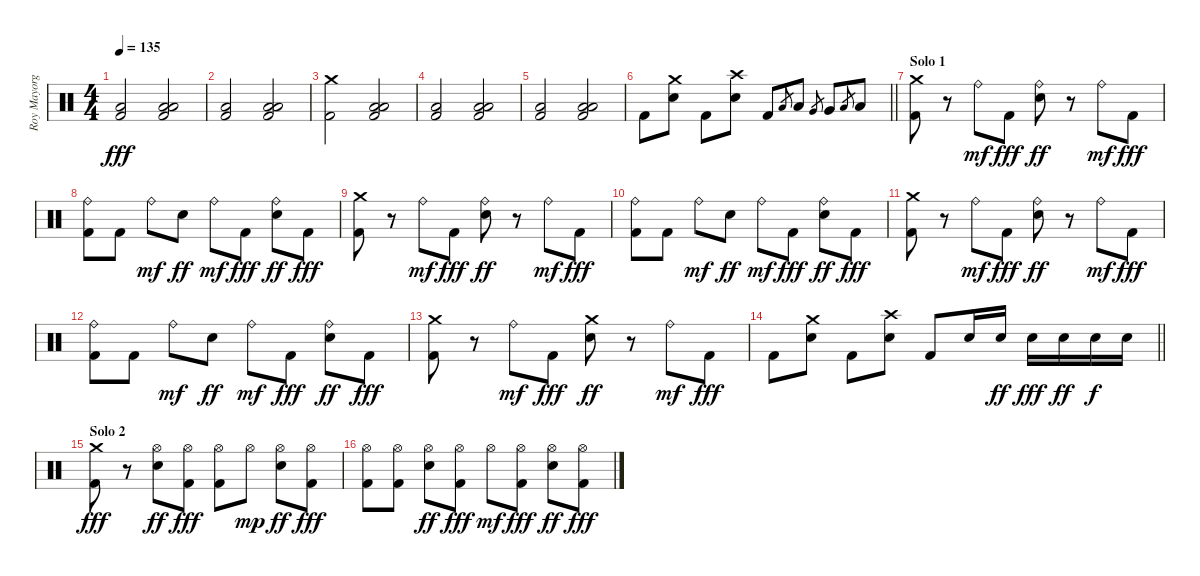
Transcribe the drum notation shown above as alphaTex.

\track ("Roy Mayorga" "Roy Mayorg") {instrument percussion}
\staff {score}
\articulation defaults
\ts (4 4)
\tempo 135
\clef neutral
\ks c
("Low Floor Tom (hit)" "Kick (hit) 2").2{dy fff} ("Low Tom (hit)" "Low Floor Tom (hit)" "Kick (hit) 2").2 |
("Low Floor Tom (hit)" "Kick (hit) 2").2 ("Low Tom (hit)" "Low Floor Tom (hit)" "Kick (hit) 2").2 |
("Crash medium (hit)" "Kick (hit) 2").2 ("Low Tom (hit)" "Low Floor Tom (hit)" "Kick (hit) 2").2 |
("Low Floor Tom (hit)" "Kick (hit) 2").2 ("Low Tom (hit)" "Low Floor Tom (hit)" "Kick (hit) 2").2 |
("Low Floor Tom (hit)" "Kick (hit) 2").2 ("Low Tom (hit)" "Low Floor Tom (hit)" "Kick (hit) 2").2 |
\barLineRight lightlight "Kick (hit) 2".8
("Crash medium (hit)" "Electric Snare (hit)").8 "Kick (hit) 2".8 ("Crash high (hit)" "Electric Snare (hit)").8 "Kick (hit) 2".8 "Low Tom (hit)".8{gr} "Low Tom (hit)".8 "Very Low Tom (hit)".8{gr} "Very Low Tom (hit)".8 "Low Floor Tom (hit)".8{gr} "Low Floor Tom (hit)".8 |
\section ("" "Solo 1")
("Crash medium (hit)" "Kick (hit) 2").8 r.8 "Ride (bell)".8{dy mf} "Kick (hit) 2".8{dy fff} ("Ride (bell)" "Electric Snare (hit)").8{dy ff} r.8 "Ride (bell)".8{dy mf} "Kick (hit) 2".8{dy fff} |
("Ride (bell)" "Kick (hit) 2").8 "Kick (hit) 2".8 "Ride (bell)".8{dy mf} "Electric Snare (hit)".8{dy ff} "Ride (bell)".8{dy mf} "Kick (hit) 2".8{dy fff} ("Ride (bell)" "Electric Snare (hit)").8{dy ff} "Kick (hit) 2".8{dy fff} |
("Crash medium (hit)" "Kick (hit) 2").8 r.8 "Ride (bell)".8{dy mf} "Kick (hit) 2".8{dy fff} ("Ride (bell)" "Electric Snare (hit)").8{dy ff} r.8 "Ride (bell)".8{dy mf} "Kick (hit) 2".8{dy fff} |
("Ride (bell)" "Kick (hit) 2").8 "Kick (hit) 2".8 "Ride (bell)".8{dy mf} "Electric Snare (hit)".8{dy ff} "Ride (bell)".8{dy mf} "Kick (hit) 2".8{dy fff} ("Ride (bell)" "Electric Snare (hit)").8{dy ff} "Kick (hit) 2".8{dy fff} |
("Crash medium (hit)" "Kick (hit) 2").8 r.8 "Ride (bell)".8{dy mf} "Kick (hit) 2".8{dy fff} ("Ride (bell)" "Electric Snare (hit)").8{dy ff} r.8 "Ride (bell)".8{dy mf} "Kick (hit) 2".8{dy fff} |
("Ride (bell)" "Kick (hit) 2").8 "Kick (hit) 2".8 "Ride (bell)".8{dy mf} "Electric Snare (hit)".8{dy ff} "Ride (bell)".8{dy mf} "Kick (hit) 2".8{dy fff} ("Ride (bell)" "Electric Snare (hit)").8{dy ff} "Kick (hit) 2".8{dy fff} |
("Crash medium (hit)" "Kick (hit) 2").8 r.8 "Ride (bell)".8{dy mf} "Kick (hit) 2".8{dy fff} ("Crash medium (hit)" "Electric Snare (hit)").8{dy ff} r.8 "Ride (bell)".8{dy mf} "Kick (hit) 2".8{dy fff} |
\barLineRight lightlight "Kick (hit) 2".8
("Crash medium (hit)" "Electric Snare (hit)").8 "Kick (hit) 2".8 ("Crash high (hit)" "Electric Snare (hit)").8 "Kick (hit) 2".8 "Electric Snare (hit)".16 "Electric Snare (hit)".16{dy ff} "Electric Snare (hit)".16{dy fff} "Electric Snare (hit)".16{dy ff} "Electric Snare (hit)".16{dy f} "Electric Snare (hit)".16 |
\section ("" "Solo 2")
("Crash medium (hit)" "Kick (hit) 2").8{dy fff} r.8 ("Hi-Hat (open)" "Electric Snare (hit)").8{dy ff} ("Hi-Hat (open)" "Kick (hit) 2").8{dy fff} ("Hi-Hat (open)" "Kick (hit) 2").8 "Hi-Hat (open)".8{dy mp} ("Hi-Hat (open)" "Electric Snare (hit)").8{dy ff} ("Hi-Hat (open)" "Kick (hit) 2").8{dy fff} |
("Hi-Hat (open)" "Kick (hit) 2").8 ("Hi-Hat (open)" "Kick (hit) 2").8 ("Hi-Hat (open)" "Electric Snare (hit)").8{dy ff} ("Hi-Hat (open)" "Kick (hit) 2").8{dy fff} "Hi-Hat (open)".8{dy mf} ("Hi-Hat (open)" "Kick (hit) 2").8{dy fff} ("Hi-Hat (open)" "Electric Snare (hit)").8{dy ff} ("Hi-Hat (open)" "Kick (hit) 2").8{dy fff}
